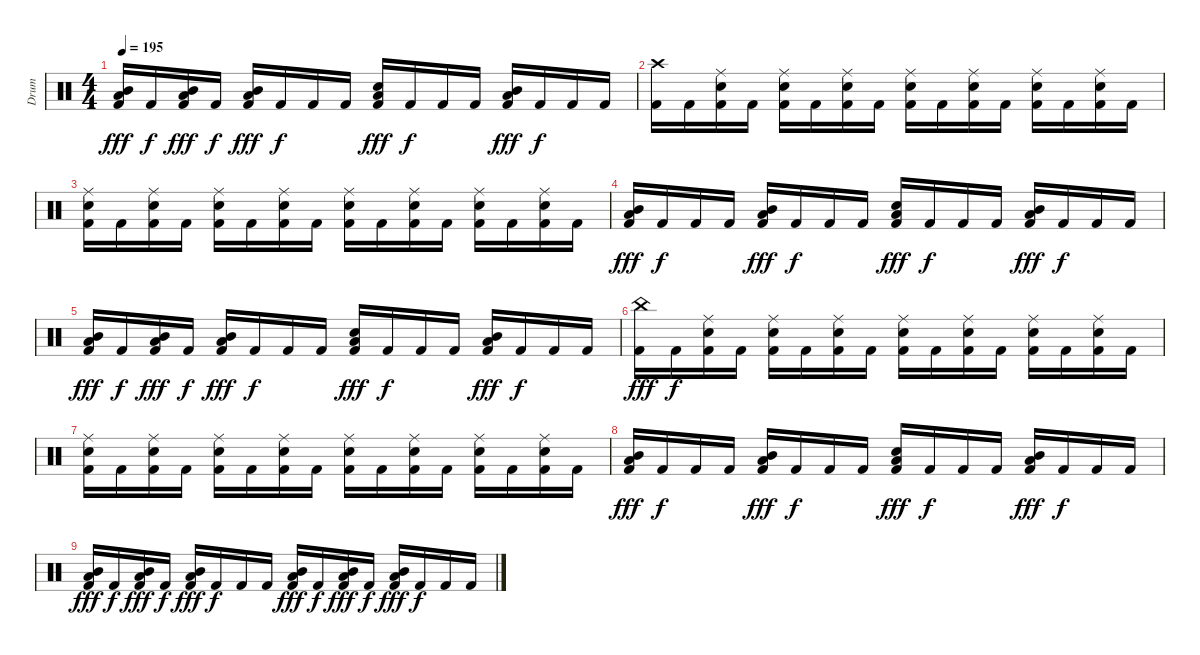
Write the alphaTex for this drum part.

\track ("Drum" "Drum") {instrument percussion}
\staff {score}
\articulation defaults
\ts (4 4)
\tempo 195
\clef neutral
\ks c
("Mid Tom (hit)" "Low Tom (hit)" "Kick (hit) 2").16{dy fff} "Kick (hit) 2".16{dy f} ("Mid Tom (hit)" "Low Tom (hit)" "Kick (hit) 2").16{dy fff} "Kick (hit) 2".16{dy f} ("Mid Tom (hit)" "Low Tom (hit)" "Kick (hit) 2").16{dy fff} "Kick (hit) 2".16{dy f} "Kick (hit) 2".16 "Kick (hit) 2".16 ("Low Tom (hit)" "Electric Snare (hit)" "Kick (hit) 2").16{dy fff} "Kick (hit) 2".16{dy f} "Kick (hit) 2".16 "Kick (hit) 2".16 ("Mid Tom (hit)" "Low Tom (hit)" "Kick (hit) 2").16{dy fff} "Kick (hit) 2".16{dy f} "Kick (hit) 2".16 "Kick (hit) 2".16 |
("Crash high (hit)" "Kick (hit) 2").16 "Kick (hit) 2".16 ("Ride (middle)" "Electric Snare (hit)" "Kick (hit) 2").16 "Kick (hit) 2".16 ("Ride (middle)" "Electric Snare (hit)" "Kick (hit) 2").16 "Kick (hit) 2".16 ("Ride (middle)" "Electric Snare (hit)" "Kick (hit) 2").16 "Kick (hit) 2".16 ("Ride (middle)" "Electric Snare (hit)" "Kick (hit) 2").16 "Kick (hit) 2".16 ("Ride (middle)" "Electric Snare (hit)" "Kick (hit) 2").16 "Kick (hit) 2".16 ("Ride (middle)" "Electric Snare (hit)" "Kick (hit) 2").16 "Kick (hit) 2".16 ("Ride (middle)" "Electric Snare (hit)" "Kick (hit) 2").16 "Kick (hit) 2".16 |
("Ride (middle)" "Electric Snare (hit)" "Kick (hit) 2").16 "Kick (hit) 2".16 ("Ride (middle)" "Electric Snare (hit)" "Kick (hit) 2").16 "Kick (hit) 2".16 ("Ride (middle)" "Electric Snare (hit)" "Kick (hit) 2").16 "Kick (hit) 2".16 ("Ride (middle)" "Electric Snare (hit)" "Kick (hit) 2").16 "Kick (hit) 2".16 ("Ride (middle)" "Electric Snare (hit)" "Kick (hit) 2").16 "Kick (hit) 2".16 ("Ride (middle)" "Electric Snare (hit)" "Kick (hit) 2").16 "Kick (hit) 2".16 ("Ride (middle)" "Electric Snare (hit)" "Kick (hit) 2").16 "Kick (hit) 2".16 ("Ride (middle)" "Electric Snare (hit)" "Kick (hit) 2").16 "Kick (hit) 2".16 |
("Mid Tom (hit)" "Low Tom (hit)" "Kick (hit) 2").16{dy fff} "Kick (hit) 2".16{dy f} "Kick (hit) 2".16 "Kick (hit) 2".16 ("Mid Tom (hit)" "Low Tom (hit)" "Kick (hit) 2").16{dy fff} "Kick (hit) 2".16{dy f} "Kick (hit) 2".16 "Kick (hit) 2".16 ("Low Tom (hit)" "Electric Snare (hit)" "Kick (hit) 2").16{dy fff} "Kick (hit) 2".16{dy f} "Kick (hit) 2".16 "Kick (hit) 2".16 ("Mid Tom (hit)" "Low Tom (hit)" "Kick (hit) 2").16{dy fff} "Kick (hit) 2".16{dy f} "Kick (hit) 2".16 "Kick (hit) 2".16 |
("Mid Tom (hit)" "Low Tom (hit)" "Kick (hit) 2").16{dy fff} "Kick (hit) 2".16{dy f} ("Mid Tom (hit)" "Low Tom (hit)" "Kick (hit) 2").16{dy fff} "Kick (hit) 2".16{dy f} ("Mid Tom (hit)" "Low Tom (hit)" "Kick (hit) 2").16{dy fff} "Kick (hit) 2".16{dy f} "Kick (hit) 2".16 "Kick (hit) 2".16 ("Low Tom (hit)" "Electric Snare (hit)" "Kick (hit) 2").16{dy fff} "Kick (hit) 2".16{dy f} "Kick (hit) 2".16 "Kick (hit) 2".16 ("Mid Tom (hit)" "Low Tom (hit)" "Kick (hit) 2").16{dy fff} "Kick (hit) 2".16{dy f} "Kick (hit) 2".16 "Kick (hit) 2".16 |
("China (hit)" "Kick (hit) 2").16{dy fff} "Kick (hit) 2".16{dy f} ("Ride (middle)" "Electric Snare (hit)" "Kick (hit) 2").16 "Kick (hit) 2".16 ("Ride (middle)" "Electric Snare (hit)" "Kick (hit) 2").16 "Kick (hit) 2".16 ("Ride (middle)" "Electric Snare (hit)" "Kick (hit) 2").16 "Kick (hit) 2".16 ("Ride (middle)" "Electric Snare (hit)" "Kick (hit) 2").16 "Kick (hit) 2".16 ("Ride (middle)" "Electric Snare (hit)" "Kick (hit) 2").16 "Kick (hit) 2".16 ("Ride (middle)" "Electric Snare (hit)" "Kick (hit) 2").16 "Kick (hit) 2".16 ("Ride (middle)" "Electric Snare (hit)" "Kick (hit) 2").16 "Kick (hit) 2".16 |
("Ride (middle)" "Electric Snare (hit)" "Kick (hit) 2").16 "Kick (hit) 2".16 ("Ride (middle)" "Electric Snare (hit)" "Kick (hit) 2").16 "Kick (hit) 2".16 ("Ride (middle)" "Electric Snare (hit)" "Kick (hit) 2").16 "Kick (hit) 2".16 ("Ride (middle)" "Electric Snare (hit)" "Kick (hit) 2").16 "Kick (hit) 2".16 ("Ride (middle)" "Electric Snare (hit)" "Kick (hit) 2").16 "Kick (hit) 2".16 ("Ride (middle)" "Electric Snare (hit)" "Kick (hit) 2").16 "Kick (hit) 2".16 ("Ride (middle)" "Electric Snare (hit)" "Kick (hit) 2").16 "Kick (hit) 2".16 ("Ride (middle)" "Electric Snare (hit)" "Kick (hit) 2").16 "Kick (hit) 2".16 |
("Mid Tom (hit)" "Low Tom (hit)" "Kick (hit) 2").16{dy fff} "Kick (hit) 2".16{dy f} "Kick (hit) 2".16 "Kick (hit) 2".16 ("Mid Tom (hit)" "Low Tom (hit)" "Kick (hit) 2").16{dy fff} "Kick (hit) 2".16{dy f} "Kick (hit) 2".16 "Kick (hit) 2".16 ("Low Tom (hit)" "Electric Snare (hit)" "Kick (hit) 2").16{dy fff} "Kick (hit) 2".16{dy f} "Kick (hit) 2".16 "Kick (hit) 2".16 ("Mid Tom (hit)" "Low Tom (hit)" "Kick (hit) 2").16{dy fff} "Kick (hit) 2".16{dy f} "Kick (hit) 2".16 "Kick (hit) 2".16 |
("Mid Tom (hit)" "Low Tom (hit)" "Kick (hit) 2").16{dy fff} "Kick (hit) 2".16{dy f} ("Mid Tom (hit)" "Low Tom (hit)" "Kick (hit) 2").16{dy fff} "Kick (hit) 2".16{dy f} ("Mid Tom (hit)" "Low Tom (hit)" "Kick (hit) 2").16{dy fff} "Kick (hit) 2".16{dy f} "Kick (hit) 2".16 "Kick (hit) 2".16 ("Mid Tom (hit)" "Low Tom (hit)" "Kick (hit) 2").16{dy fff} "Kick (hit) 2".16{dy f} ("Mid Tom (hit)" "Low Tom (hit)" "Kick (hit) 2").16{dy fff} "Kick (hit) 2".16{dy f} ("Mid Tom (hit)" "Low Tom (hit)" "Kick (hit) 2").16{dy fff} "Kick (hit) 2".16{dy f} "Kick (hit) 2".16 "Kick (hit) 2".16
